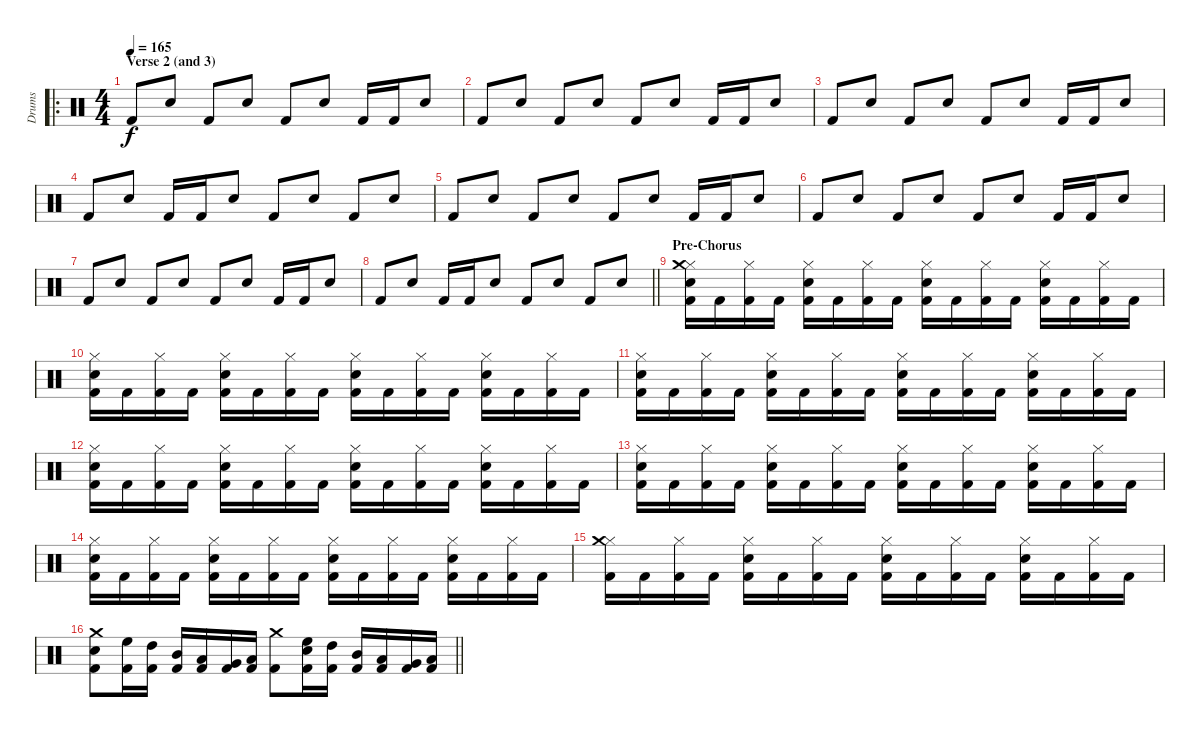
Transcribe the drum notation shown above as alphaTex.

\track ("Drums" "Drums") {instrument percussion}
\staff {score}
\articulation defaults
\ro
\ts (4 4)
\section ("" "Verse 2 (and 3)")
\tempo 165
\clef neutral
\ks c "Kick (hit) 2".8{dy f} "Snare (hit) 2".8 "Kick (hit) 2".8 "Snare (hit) 2".8 "Kick (hit) 2".8 "Snare (hit) 2".8 "Kick (hit) 2".16 "Kick (hit) 2".16 "Snare (hit) 2".8
|
"Kick (hit) 2".8 "Snare (hit) 2".8 "Kick (hit) 2".8 "Snare (hit) 2".8 "Kick (hit) 2".8 "Snare (hit) 2".8 "Kick (hit) 2".16 "Kick (hit) 2".16 "Snare (hit) 2".8 |
"Kick (hit) 2".8 "Snare (hit) 2".8 "Kick (hit) 2".8 "Snare (hit) 2".8 "Kick (hit) 2".8 "Snare (hit) 2".8 "Kick (hit) 2".16 "Kick (hit) 2".16 "Snare (hit) 2".8 |
"Kick (hit) 2".8 "Snare (hit) 2".8 "Kick (hit) 2".16 "Kick (hit) 2".16 "Snare (hit) 2".8 "Kick (hit) 2".8 "Snare (hit) 2".8 "Kick (hit) 2".8 "Snare (hit) 2".8 |
"Kick (hit) 2".8 "Snare (hit) 2".8 "Kick (hit) 2".8 "Snare (hit) 2".8 "Kick (hit) 2".8 "Snare (hit) 2".8 "Kick (hit) 2".16 "Kick (hit) 2".16 "Snare (hit) 2".8 |
"Kick (hit) 2".8 "Snare (hit) 2".8 "Kick (hit) 2".8 "Snare (hit) 2".8 "Kick (hit) 2".8 "Snare (hit) 2".8 "Kick (hit) 2".16 "Kick (hit) 2".16 "Snare (hit) 2".8 |
"Kick (hit) 2".8 "Snare (hit) 2".8 "Kick (hit) 2".8 "Snare (hit) 2".8 "Kick (hit) 2".8 "Snare (hit) 2".8 "Kick (hit) 2".16 "Kick (hit) 2".16 "Snare (hit) 2".8 |
\barLineRight lightlight "Kick (hit) 2".8 "Snare (hit) 2".8 "Kick (hit) 2".16 "Kick (hit) 2".16 "Snare (hit) 2".8 "Kick (hit) 2".8 "Snare (hit) 2".8 "Kick (hit) 2".8 "Snare (hit) 2".8
|
\section ("" "Pre-Chorus")
("Hi-Hat (closed)" "Snare (hit) 2" "Crash medium (hit)" "Kick (hit) 2").16 "Kick (hit) 2".16 ("Hi-Hat (closed)" "Kick (hit) 2").16 "Kick (hit) 2".16 ("Hi-Hat (closed)" "Snare (hit) 2" "Kick (hit) 2").16 "Kick (hit) 2".16 ("Hi-Hat (closed)" "Kick (hit) 2").16 "Kick (hit) 2".16 ("Hi-Hat (closed)" "Snare (hit) 2" "Kick (hit) 2").16 "Kick (hit) 2".16 ("Hi-Hat (closed)" "Kick (hit) 2").16 "Kick (hit) 2".16 ("Hi-Hat (closed)" "Snare (hit) 2" "Kick (hit) 2").16 "Kick (hit) 2".16 ("Hi-Hat (closed)" "Kick (hit) 2").16 "Kick (hit) 2".16 |
("Hi-Hat (closed)" "Snare (hit) 2" "Kick (hit) 2").16 "Kick (hit) 2".16 ("Hi-Hat (closed)" "Kick (hit) 2").16 "Kick (hit) 2".16 ("Hi-Hat (closed)" "Snare (hit) 2" "Kick (hit) 2").16 "Kick (hit) 2".16 ("Hi-Hat (closed)" "Kick (hit) 2").16 "Kick (hit) 2".16 ("Hi-Hat (closed)" "Snare (hit) 2" "Kick (hit) 2").16 "Kick (hit) 2".16 ("Hi-Hat (closed)" "Kick (hit) 2").16 "Kick (hit) 2".16 ("Hi-Hat (closed)" "Snare (hit) 2" "Kick (hit) 2").16 "Kick (hit) 2".16 ("Hi-Hat (closed)" "Kick (hit) 2").16 "Kick (hit) 2".16 |
("Hi-Hat (closed)" "Snare (hit) 2" "Kick (hit) 2").16 "Kick (hit) 2".16 ("Hi-Hat (closed)" "Kick (hit) 2").16 "Kick (hit) 2".16 ("Hi-Hat (closed)" "Snare (hit) 2" "Kick (hit) 2").16 "Kick (hit) 2".16 ("Hi-Hat (closed)" "Kick (hit) 2").16 "Kick (hit) 2".16 ("Hi-Hat (closed)" "Snare (hit) 2" "Kick (hit) 2").16 "Kick (hit) 2".16 ("Hi-Hat (closed)" "Kick (hit) 2").16 "Kick (hit) 2".16 ("Hi-Hat (closed)" "Snare (hit) 2" "Kick (hit) 2").16 "Kick (hit) 2".16 ("Hi-Hat (closed)" "Kick (hit) 2").16 "Kick (hit) 2".16 |
("Hi-Hat (closed)" "Snare (hit) 2" "Kick (hit) 2").16 "Kick (hit) 2".16 ("Hi-Hat (closed)" "Kick (hit) 2").16 "Kick (hit) 2".16 ("Hi-Hat (closed)" "Snare (hit) 2" "Kick (hit) 2").16 "Kick (hit) 2".16 ("Hi-Hat (closed)" "Kick (hit) 2").16 "Kick (hit) 2".16 ("Hi-Hat (closed)" "Snare (hit) 2" "Kick (hit) 2").16 "Kick (hit) 2".16 ("Hi-Hat (closed)" "Kick (hit) 2").16 "Kick (hit) 2".16 ("Hi-Hat (closed)" "Snare (hit) 2" "Kick (hit) 2").16 "Kick (hit) 2".16 ("Hi-Hat (closed)" "Kick (hit) 2").16 "Kick (hit) 2".16 |
("Hi-Hat (closed)" "Snare (hit) 2" "Kick (hit) 2").16 "Kick (hit) 2".16 ("Hi-Hat (closed)" "Kick (hit) 2").16 "Kick (hit) 2".16 ("Hi-Hat (closed)" "Snare (hit) 2" "Kick (hit) 2").16 "Kick (hit) 2".16 ("Hi-Hat (closed)" "Kick (hit) 2").16 "Kick (hit) 2".16 ("Hi-Hat (closed)" "Snare (hit) 2" "Kick (hit) 2").16 "Kick (hit) 2".16 ("Hi-Hat (closed)" "Kick (hit) 2").16 "Kick (hit) 2".16 ("Hi-Hat (closed)" "Snare (hit) 2" "Kick (hit) 2").16 "Kick (hit) 2".16 ("Hi-Hat (closed)" "Kick (hit) 2").16 "Kick (hit) 2".16 |
("Hi-Hat (closed)" "Snare (hit) 2" "Kick (hit) 2").16 "Kick (hit) 2".16 ("Hi-Hat (closed)" "Kick (hit) 2").16 "Kick (hit) 2".16 ("Hi-Hat (closed)" "Snare (hit) 2" "Kick (hit) 2").16 "Kick (hit) 2".16 ("Hi-Hat (closed)" "Kick (hit) 2").16 "Kick (hit) 2".16 ("Hi-Hat (closed)" "Snare (hit) 2" "Kick (hit) 2").16 "Kick (hit) 2".16 ("Hi-Hat (closed)" "Kick (hit) 2").16 "Kick (hit) 2".16 ("Hi-Hat (closed)" "Snare (hit) 2" "Kick (hit) 2").16 "Kick (hit) 2".16 ("Hi-Hat (closed)" "Kick (hit) 2").16 "Kick (hit) 2".16 |
("Hi-Hat (closed)" "Crash medium (hit)" "Kick (hit) 2").16 "Kick (hit) 2".16 ("Hi-Hat (closed)" "Kick (hit) 2").16 "Kick (hit) 2".16 ("Hi-Hat (closed)" "Snare (hit) 2" "Kick (hit) 2").16 "Kick (hit) 2".16 ("Hi-Hat (closed)" "Kick (hit) 2").16 "Kick (hit) 2".16 ("Hi-Hat (closed)" "Snare (hit) 2" "Kick (hit) 2").16 "Kick (hit) 2".16 ("Hi-Hat (closed)" "Kick (hit) 2").16 "Kick (hit) 2".16 ("Hi-Hat (closed)" "Snare (hit) 2" "Kick (hit) 2").16 "Kick (hit) 2".16 ("Hi-Hat (closed)" "Kick (hit) 2").16 "Kick (hit) 2".16 |
\barLineRight lightlight
("Crash medium (hit)" "Snare (hit) 2" "Kick (hit) 2").8 ("High Floor Tom (hit)" "Kick (hit) 2").16 ("High Tom (hit)" "Kick (hit) 2").16 ("Mid Tom (hit)" "Kick (hit) 2").16 ("Low Tom (hit)" "Kick (hit) 2").16 ("Very Low Tom (hit)" "Kick (hit) 2").16 ("Low Floor Tom (hit)" "Kick (hit) 2").16 ("Crash medium (hit)" "Kick (hit) 2").8 ("High Floor Tom (hit)" "Snare (hit) 2" "Kick (hit) 2").16 ("High Tom (hit)" "Kick (hit) 2").16 ("Mid Tom (hit)" "Kick (hit) 2").16 ("Low Tom (hit)" "Kick (hit) 2").16 ("Very Low Tom (hit)" "Kick (hit) 2").16 ("Low Floor Tom (hit)" "Kick (hit) 2").16
